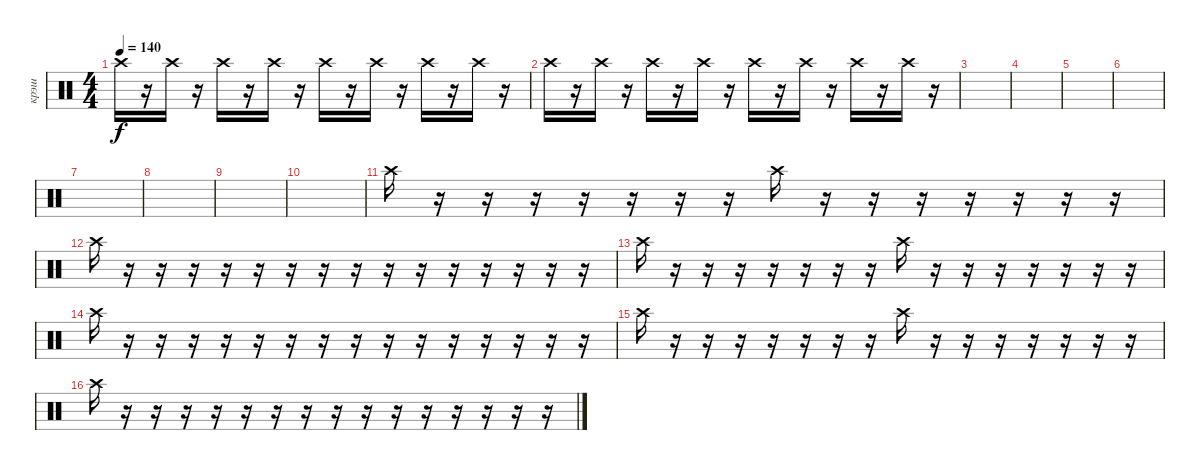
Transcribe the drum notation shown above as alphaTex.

\track ("крэш" "крэш") {mute instrument percussion}
\staff {score}
\articulation defaults
\ts (4 4)
\tempo 140
\clef neutral
\ks c "Crash high (hit)".16{dy f}
r.16 "Crash high (hit)".16 r.16 "Crash high (hit)".16 r.16 "Crash high (hit)".16 r.16 "Crash high (hit)".16 r.16 "Crash high (hit)".16 r.16 "Crash high (hit)".16 r.16 "Crash high (hit)".16 r.16 |
"Crash high (hit)".16 r.16 "Crash high (hit)".16 r.16 "Crash high (hit)".16 r.16 "Crash high (hit)".16 r.16 "Crash high (hit)".16 r.16 "Crash high (hit)".16 r.16 "Crash high (hit)".16 r.16 "Crash high (hit)".16 r.16 |
|
|
|
|
|
|
|
|
"Crash high (hit)".16 r.16 r.16 r.16 r.16 r.16 r.16 r.16 "Crash high (hit)".16 r.16 r.16 r.16 r.16 r.16 r.16 r.16 |
"Crash high (hit)".16 r.16 r.16 r.16 r.16 r.16 r.16 r.16 r.16 r.16 r.16 r.16 r.16 r.16 r.16 r.16 |
"Crash high (hit)".16 r.16 r.16 r.16 r.16 r.16 r.16 r.16 "Crash high (hit)".16 r.16 r.16 r.16 r.16 r.16 r.16 r.16 |
"Crash high (hit)".16 r.16 r.16 r.16 r.16 r.16 r.16 r.16 r.16 r.16 r.16 r.16 r.16 r.16 r.16 r.16 |
"Crash high (hit)".16 r.16 r.16 r.16 r.16 r.16 r.16 r.16 "Crash high (hit)".16 r.16 r.16 r.16 r.16 r.16 r.16 r.16 |
"Crash high (hit)".16 r.16 r.16 r.16 r.16 r.16 r.16 r.16 r.16 r.16 r.16 r.16 r.16 r.16 r.16 r.16
